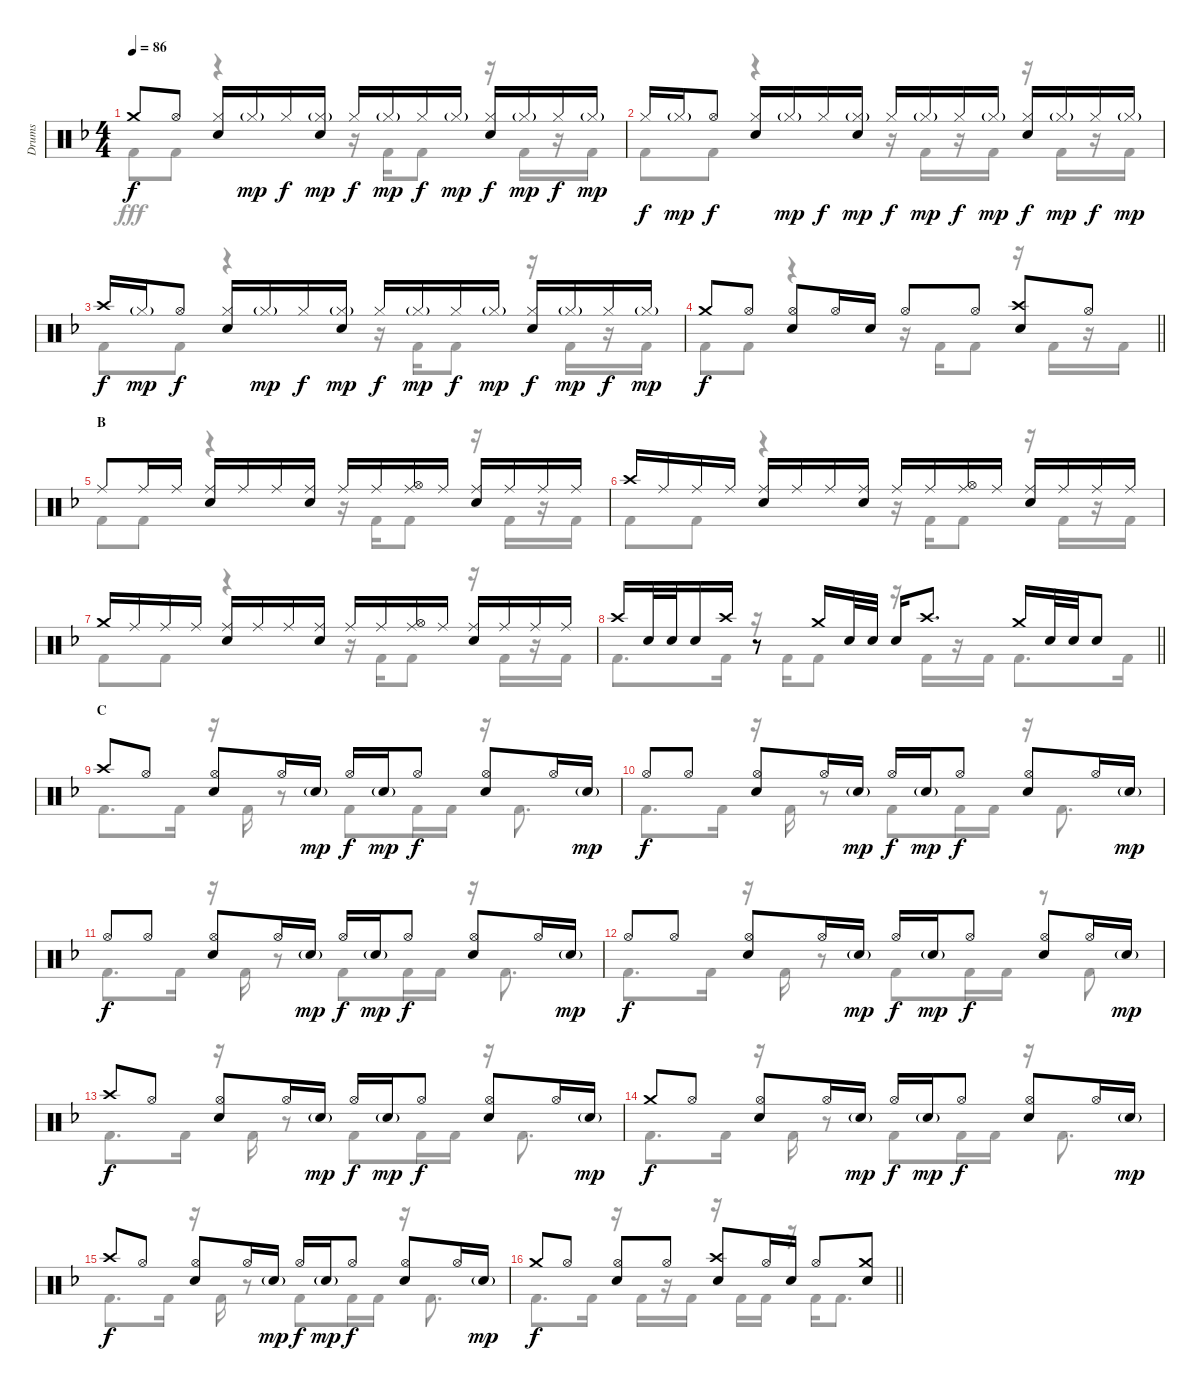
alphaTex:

\track ("Drums" "Drums") {instrument percussion}
\staff {score}
\articulation defaults
\voice
\ts (4 4)
\tempo 86
\clef neutral
\ks f "Crash medium (hit)".8{dy f} "Hi-Hat (open)".8
("Hi-Hat (closed)" "Snare (hit) 2").16 "Hi-Hat (closed)"{g}.16{dy mp} "Hi-Hat (closed)".16{dy f} ("Hi-Hat (closed)"{g} "Snare (hit) 2").16{dy mp} "Hi-Hat (closed)".16{dy f} "Hi-Hat (closed)"{g}.16{dy mp} "Hi-Hat (closed)".16{dy f} "Hi-Hat (closed)"{g}.16{dy mp} ("Hi-Hat (closed)" "Snare (hit) 2").16{dy f} "Hi-Hat (closed)"{g}.16{dy mp} "Hi-Hat (closed)".16{dy f} "Hi-Hat (closed)"{g}.16{dy mp} |
"Hi-Hat (closed)".16{dy f} "Hi-Hat (closed)"{g}.16{dy mp} "Hi-Hat (open)".8{dy f} ("Hi-Hat (closed)" "Snare (hit) 2").16 "Hi-Hat (closed)"{g}.16{dy mp} "Hi-Hat (closed)".16{dy f} ("Hi-Hat (closed)"{g} "Snare (hit) 2").16{dy mp} "Hi-Hat (closed)".16{dy f} "Hi-Hat (closed)"{g}.16{dy mp} "Hi-Hat (closed)".16{dy f} "Hi-Hat (closed)"{g}.16{dy mp} ("Hi-Hat (closed)" "Snare (hit) 2").16{dy f} "Hi-Hat (closed)"{g}.16{dy mp} "Hi-Hat (closed)".16{dy f} "Hi-Hat (closed)"{g}.16{dy mp} |
"Crash high (hit)".16{dy f} "Hi-Hat (closed)"{g}.16{dy mp} "Hi-Hat (open)".8{dy f} ("Hi-Hat (closed)" "Snare (hit) 2").16 "Hi-Hat (closed)"{g}.16{dy mp} "Hi-Hat (closed)".16{dy f} ("Hi-Hat (closed)"{g} "Snare (hit) 2").16{dy mp} "Hi-Hat (closed)".16{dy f} "Hi-Hat (closed)"{g}.16{dy mp} "Hi-Hat (closed)".16{dy f} "Hi-Hat (closed)"{g}.16{dy mp} ("Hi-Hat (closed)" "Snare (hit) 2").16{dy f} "Hi-Hat (closed)"{g}.16{dy mp} "Hi-Hat (closed)".16{dy f} "Hi-Hat (closed)"{g}.16{dy mp} |
\barLineRight lightlight "Crash medium (hit)".8{dy f} "Hi-Hat (open)".8
("Hi-Hat (open)" "Snare (hit) 2").8 "Hi-Hat (open)".16 "Snare (hit) 2".16 "Hi-Hat (open)".8 "Hi-Hat (open)".8 ("Crash high (hit)" "Snare (hit) 2").8 "Hi-Hat (open)".8 |
\section ("" "B")
"Ride (middle)".8 "Ride (middle)".16 "Ride (middle)".16 ("Ride (middle)" "Snare (hit) 2").16 "Ride (middle)".16 "Ride (middle)".16 ("Ride (middle)" "Snare (hit) 2").16 "Ride (middle)".16 "Ride (middle)".16 ("Hi-Hat (open)" "Ride (middle)").16 "Ride (middle)".16 ("Ride (middle)" "Snare (hit) 2").16 "Ride (middle)".16 "Ride (middle)".16 "Ride (middle)".16 |
"Crash high (hit)".16 "Ride (middle)".16 "Ride (middle)".16 "Ride (middle)".16 ("Ride (middle)" "Snare (hit) 2").16 "Ride (middle)".16 "Ride (middle)".16 ("Ride (middle)" "Snare (hit) 2").16 "Ride (middle)".16 "Ride (middle)".16 ("Hi-Hat (open)" "Ride (middle)").16 "Ride (middle)".16 ("Ride (middle)" "Snare (hit) 2").16 "Ride (middle)".16 "Ride (middle)".16 "Ride (middle)".16 |
"Crash medium (hit)".16 "Ride (middle)".16 "Ride (middle)".16 "Ride (middle)".16 ("Ride (middle)" "Snare (hit) 2").16 "Ride (middle)".16 "Ride (middle)".16 ("Ride (middle)" "Snare (hit) 2").16 "Ride (middle)".16 "Ride (middle)".16 ("Hi-Hat (open)" "Ride (middle)").16 "Ride (middle)".16 ("Ride (middle)" "Snare (hit) 2").16 "Ride (middle)".16 "Ride (middle)".16 "Ride (middle)".16 |
\barLineRight lightlight "Crash high (hit)".16 "Snare (hit) 2".32 "Snare (hit) 2".32 "Snare (hit) 2".16 "Crash high (hit)".16
r.8 "Crash medium (hit)".16 "Snare (hit) 2".32 "Snare (hit) 2".32 "Snare (hit) 2".16 "Crash high (hit)".8{d} "Crash medium (hit)".16 "Snare (hit) 2".32 "Snare (hit) 2".32 "Snare (hit) 2".8 |
\section ("" "C")
"Crash high (hit)".8 "Hi-Hat (open)".8 ("Hi-Hat (open)" "Snare (hit) 2").8 "Hi-Hat (open)".16 "Snare (hit) 2"{g}.16{dy mp} "Hi-Hat (open)".16{dy f} "Snare (hit) 2"{g}.16{dy mp} "Hi-Hat (open)".8{dy f} ("Hi-Hat (open)" "Snare (hit) 2").8 "Hi-Hat (open)".16 "Snare (hit) 2"{g}.16{dy mp} |
"Hi-Hat (open)".8{dy f} "Hi-Hat (open)".8 ("Hi-Hat (open)" "Snare (hit) 2").8 "Hi-Hat (open)".16 "Snare (hit) 2"{g}.16{dy mp} "Hi-Hat (open)".16{dy f} "Snare (hit) 2"{g}.16{dy mp} "Hi-Hat (open)".8{dy f} ("Hi-Hat (open)" "Snare (hit) 2").8 "Hi-Hat (open)".16 "Snare (hit) 2"{g}.16{dy mp} |
"Hi-Hat (open)".8{dy f} "Hi-Hat (open)".8 ("Hi-Hat (open)" "Snare (hit) 2").8 "Hi-Hat (open)".16 "Snare (hit) 2"{g}.16{dy mp} "Hi-Hat (open)".16{dy f} "Snare (hit) 2"{g}.16{dy mp} "Hi-Hat (open)".8{dy f} ("Hi-Hat (open)" "Snare (hit) 2").8 "Hi-Hat (open)".16 "Snare (hit) 2"{g}.16{dy mp} |
"Hi-Hat (open)".8{dy f} "Hi-Hat (open)".8 ("Hi-Hat (open)" "Snare (hit) 2").8 "Hi-Hat (open)".16 "Snare (hit) 2"{g}.16{dy mp} "Hi-Hat (open)".16{dy f} "Snare (hit) 2"{g}.16{dy mp} "Hi-Hat (open)".8{dy f} ("Hi-Hat (open)" "Snare (hit) 2").8 "Hi-Hat (open)".16 "Snare (hit) 2"{g}.16{dy mp} |
"Crash high (hit)".8{dy f} "Hi-Hat (open)".8 ("Hi-Hat (open)" "Snare (hit) 2").8 "Hi-Hat (open)".16 "Snare (hit) 2"{g}.16{dy mp} "Hi-Hat (open)".16{dy f} "Snare (hit) 2"{g}.16{dy mp} "Hi-Hat (open)".8{dy f} ("Hi-Hat (open)" "Snare (hit) 2").8 "Hi-Hat (open)".16 "Snare (hit) 2"{g}.16{dy mp} |
"Crash medium (hit)".8{dy f} "Hi-Hat (open)".8 ("Hi-Hat (open)" "Snare (hit) 2").8 "Hi-Hat (open)".16 "Snare (hit) 2"{g}.16{dy mp} "Hi-Hat (open)".16{dy f} "Snare (hit) 2"{g}.16{dy mp} "Hi-Hat (open)".8{dy f} ("Hi-Hat (open)" "Snare (hit) 2").8 "Hi-Hat (open)".16 "Snare (hit) 2"{g}.16{dy mp} |
"Crash high (hit)".8{dy f} "Hi-Hat (open)".8 ("Hi-Hat (open)" "Snare (hit) 2").8 "Hi-Hat (open)".16 "Snare (hit) 2"{g}.16{dy mp} "Hi-Hat (open)".16{dy f} "Snare (hit) 2"{g}.16{dy mp} "Hi-Hat (open)".8{dy f} ("Hi-Hat (open)" "Snare (hit) 2").8 "Hi-Hat (open)".16 "Snare (hit) 2"{g}.16{dy mp} |
\barLineRight lightlight "Crash medium (hit)".8{dy f} "Hi-Hat (open)".8
("Hi-Hat (open)" "Snare (hit) 2").8 "Hi-Hat (open)".8 ("Crash high (hit)" "Snare (hit) 2").8 "Hi-Hat (open)".16 "Snare (hit) 2".16 "Hi-Hat (open)".8 ("Crash medium (hit)" "Snare (hit) 2").8
\voice
\clef neutral
\ottava regular
\simile none
\ks f "Kick (hit) 2".8{dy fff} "Kick (hit) 2".8
r.4 r.16 "Kick (hit) 2".16 "Kick (hit) 2".8 r.16 "Kick (hit) 2".16 r.16 "Kick (hit) 2".16 |
"Kick (hit) 2".8 "Kick (hit) 2".8 r.4 r.16 "Kick (hit) 2".16 r.16 "Kick (hit) 2".16 r.16 "Kick (hit) 2".16 r.16 "Kick (hit) 2".16 |
"Kick (hit) 2".8 "Kick (hit) 2".8 r.4 r.16 "Kick (hit) 2".16 "Kick (hit) 2".8 r.16 "Kick (hit) 2".16 r.16 "Kick (hit) 2".16 |
\barLineRight lightlight "Kick (hit) 2".8 "Kick (hit) 2".8
r.4 r.16 "Kick (hit) 2".16 "Kick (hit) 2".8 r.16 "Kick (hit) 2".16 r.16 "Kick (hit) 2".16 |
"Kick (hit) 2".8 "Kick (hit) 2".8 r.4 r.16 "Kick (hit) 2".16 "Kick (hit) 2".8 r.16 "Kick (hit) 2".16 r.16 "Kick (hit) 2".16 |
"Kick (hit) 2".8 "Kick (hit) 2".8 r.4 r.16 "Kick (hit) 2".16 "Kick (hit) 2".8 r.16 "Kick (hit) 2".16 r.16 "Kick (hit) 2".16 |
"Kick (hit) 2".8 "Kick (hit) 2".8 r.4 r.16 "Kick (hit) 2".16 "Kick (hit) 2".8 r.16 "Kick (hit) 2".16 r.16 "Kick (hit) 2".16 |
\barLineRight lightlight "Kick (hit) 2".8{d} "Kick (hit) 2".16
r.16 "Kick (hit) 2".16 "Kick (hit) 2".8 r.16 "Kick (hit) 2".16 r.16 "Kick (hit) 2".16 "Kick (hit) 2".8{d} "Kick (hit) 2".16 |
"Kick (hit) 2".8{d} "Kick (hit) 2".16 r.16 "Kick (hit) 2".16 r.8 "Kick (hit) 2".8 "Kick (hit) 2".16 "Kick (hit) 2".16 r.16 "Kick (hit) 2".8{d} |
"Kick (hit) 2".8{d} "Kick (hit) 2".16 r.16 "Kick (hit) 2".16 r.8 "Kick (hit) 2".8 "Kick (hit) 2".16 "Kick (hit) 2".16 r.16 "Kick (hit) 2".8{d} |
"Kick (hit) 2".8{d} "Kick (hit) 2".16 r.16 "Kick (hit) 2".16 r.8 "Kick (hit) 2".8 "Kick (hit) 2".16 "Kick (hit) 2".16 r.16 "Kick (hit) 2".8{d} |
"Kick (hit) 2".8{d} "Kick (hit) 2".16 r.16 "Kick (hit) 2".16 r.8 "Kick (hit) 2".8 "Kick (hit) 2".16 "Kick (hit) 2".16 r.8 "Kick (hit) 2".8 |
"Kick (hit) 2".8{d} "Kick (hit) 2".16 r.16 "Kick (hit) 2".16 r.8 "Kick (hit) 2".8 "Kick (hit) 2".16 "Kick (hit) 2".16 r.16 "Kick (hit) 2".8{d} |
"Kick (hit) 2".8{d} "Kick (hit) 2".16 r.16 "Kick (hit) 2".16 r.8 "Kick (hit) 2".8 "Kick (hit) 2".16 "Kick (hit) 2".16 r.16 "Kick (hit) 2".8{d} |
"Kick (hit) 2".8{d} "Kick (hit) 2".16 r.16 "Kick (hit) 2".16 r.8 "Kick (hit) 2".8 "Kick (hit) 2".16 "Kick (hit) 2".16 r.16 "Kick (hit) 2".8{d} |
\barLineRight lightlight "Kick (hit) 2".8{d} "Kick (hit) 2".16
r.16 "Kick (hit) 2".16 r.16 "Kick (hit) 2".16 r.16 "Kick (hit) 2".16 "Kick (hit) 2".16 r.16 "Kick (hit) 2".16 "Kick (hit) 2".8{d}
